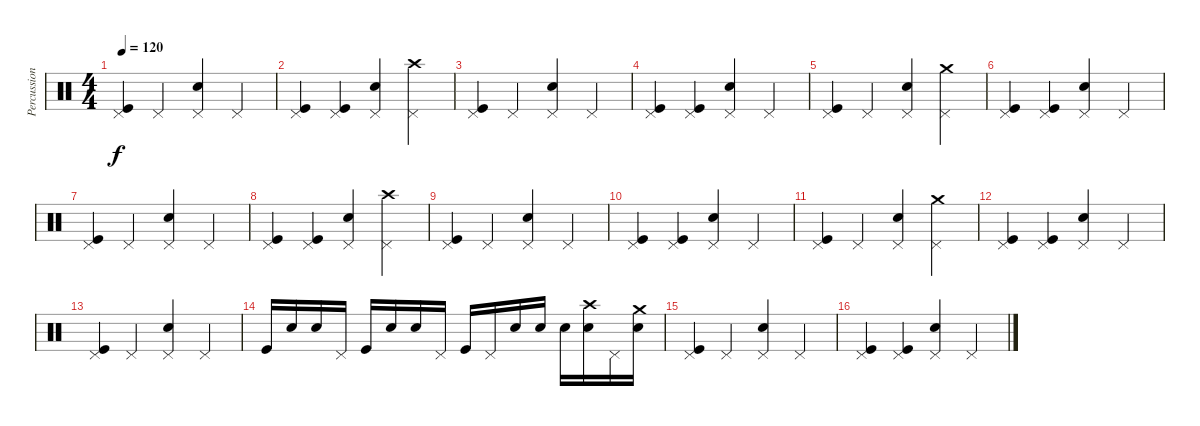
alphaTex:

\track ("Percussions" "Percussion") {instrument percussion}
\staff {score}
\articulation defaults
\ts (4 4)
\tempo 120
\clef neutral
\ks c
("Kick (hit)" "Pedal Hi-Hat (hit)").4{dy f} "Pedal Hi-Hat (hit)".4 ("Electric Snare (hit)" "Pedal Hi-Hat (hit)").4 "Pedal Hi-Hat (hit)".4 |
("Kick (hit)" "Pedal Hi-Hat (hit)").4 ("Kick (hit)" "Pedal Hi-Hat (hit)").4 ("Electric Snare (hit)" "Pedal Hi-Hat (hit)").4 ("Pedal Hi-Hat (hit)" "Crash high (hit)").4 |
("Kick (hit)" "Pedal Hi-Hat (hit)").4 "Pedal Hi-Hat (hit)".4 ("Electric Snare (hit)" "Pedal Hi-Hat (hit)").4 "Pedal Hi-Hat (hit)".4 |
("Kick (hit)" "Pedal Hi-Hat (hit)").4 ("Kick (hit)" "Pedal Hi-Hat (hit)").4 ("Electric Snare (hit)" "Pedal Hi-Hat (hit)").4 "Pedal Hi-Hat (hit)".4 |
("Kick (hit)" "Pedal Hi-Hat (hit)").4 "Pedal Hi-Hat (hit)".4 ("Electric Snare (hit)" "Pedal Hi-Hat (hit)").4 ("Pedal Hi-Hat (hit)" "Crash medium (hit)").4 |
("Kick (hit)" "Pedal Hi-Hat (hit)").4 ("Kick (hit)" "Pedal Hi-Hat (hit)").4 ("Electric Snare (hit)" "Pedal Hi-Hat (hit)").4 "Pedal Hi-Hat (hit)".4 |
("Kick (hit)" "Pedal Hi-Hat (hit)").4 "Pedal Hi-Hat (hit)".4 ("Electric Snare (hit)" "Pedal Hi-Hat (hit)").4 "Pedal Hi-Hat (hit)".4 |
("Kick (hit)" "Pedal Hi-Hat (hit)").4 ("Kick (hit)" "Pedal Hi-Hat (hit)").4 ("Electric Snare (hit)" "Pedal Hi-Hat (hit)").4 ("Pedal Hi-Hat (hit)" "Crash high (hit)").4 |
("Kick (hit)" "Pedal Hi-Hat (hit)").4 "Pedal Hi-Hat (hit)".4 ("Electric Snare (hit)" "Pedal Hi-Hat (hit)").4 "Pedal Hi-Hat (hit)".4 |
("Kick (hit)" "Pedal Hi-Hat (hit)").4 ("Kick (hit)" "Pedal Hi-Hat (hit)").4 ("Electric Snare (hit)" "Pedal Hi-Hat (hit)").4 "Pedal Hi-Hat (hit)".4 |
("Kick (hit)" "Pedal Hi-Hat (hit)").4 "Pedal Hi-Hat (hit)".4 ("Electric Snare (hit)" "Pedal Hi-Hat (hit)").4 ("Pedal Hi-Hat (hit)" "Crash medium (hit)").4 |
("Kick (hit)" "Pedal Hi-Hat (hit)").4 ("Kick (hit)" "Pedal Hi-Hat (hit)").4 ("Electric Snare (hit)" "Pedal Hi-Hat (hit)").4 "Pedal Hi-Hat (hit)".4 |
("Kick (hit)" "Pedal Hi-Hat (hit)").4 "Pedal Hi-Hat (hit)".4 ("Electric Snare (hit)" "Pedal Hi-Hat (hit)").4 "Pedal Hi-Hat (hit)".4 |
"Kick (hit)".16 "Snare (hit) 2".16 "Electric Snare (hit)".16 "Pedal Hi-Hat (hit)".16 "Kick (hit)".16 "Electric Snare (hit)".16 "Snare (hit) 2".16 "Pedal Hi-Hat (hit)".16 "Kick (hit)".16 "Pedal Hi-Hat (hit)".16 "Snare (hit) 2".16 "Electric Snare (hit)".16 "Snare (hit) 2".16 ("Snare (hit) 2" "Crash high (hit)").16 "Pedal Hi-Hat (hit)".16 ("Electric Snare (hit)" "Crash medium (hit)").16 |
("Kick (hit)" "Pedal Hi-Hat (hit)").4 "Pedal Hi-Hat (hit)".4 ("Electric Snare (hit)" "Pedal Hi-Hat (hit)").4 "Pedal Hi-Hat (hit)".4 |
("Kick (hit)" "Pedal Hi-Hat (hit)").4 ("Kick (hit)" "Pedal Hi-Hat (hit)").4 ("Electric Snare (hit)" "Pedal Hi-Hat (hit)").4 "Pedal Hi-Hat (hit)".4
